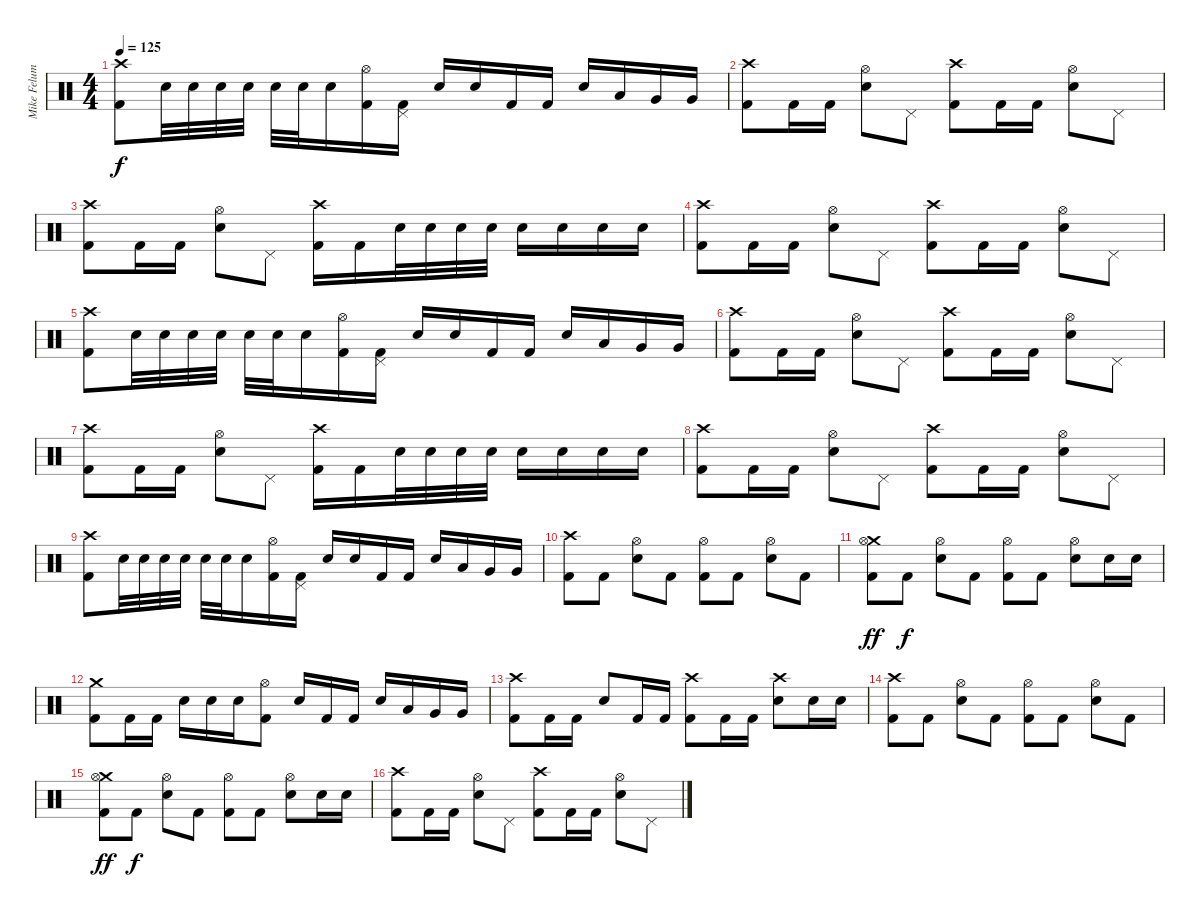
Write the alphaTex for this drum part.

\track ("Mike Felumlee" "Mike Felum") {instrument percussion}
\staff {score}
\articulation defaults
\ts (4 4)
\tempo 125
\clef neutral
\ks c
("Crash high (hit)" "Kick (hit) 2").8{dy f} "Electric Snare (hit)".32 "Electric Snare (hit)".32 "Electric Snare (hit)".32 "Electric Snare (hit)".32 "Electric Snare (hit)".32 "Electric Snare (hit)".32 "Electric Snare (hit)".16 ("Hi-Hat (open)" "Kick (hit) 2").16 ("Pedal Hi-Hat (hit)" "Kick (hit) 2").16 "Electric Snare (hit)".16 "Electric Snare (hit)".16 "Kick (hit) 2".16 "Kick (hit) 2".16 "Electric Snare (hit)".16 "Low Tom (hit)".16 "Very Low Tom (hit)".16 "Very Low Tom (hit)".16 |
("Crash high (hit)" "Kick (hit) 2").8 "Kick (hit) 2".16 "Kick (hit) 2".16 ("Hi-Hat (open)" "Electric Snare (hit)").8 "Pedal Hi-Hat (hit)".8 ("Crash high (hit)" "Kick (hit) 2").8 "Kick (hit) 2".16 "Kick (hit) 2".16 ("Hi-Hat (open)" "Electric Snare (hit)").8 "Pedal Hi-Hat (hit)".8 |
("Crash high (hit)" "Kick (hit) 2").8 "Kick (hit) 2".16 "Kick (hit) 2".16 ("Hi-Hat (open)" "Electric Snare (hit)").8 "Pedal Hi-Hat (hit)".8 ("Crash high (hit)" "Kick (hit) 2").16 "Kick (hit) 2".16 "Electric Snare (hit)".32 "Electric Snare (hit)".32 "Electric Snare (hit)".32 "Electric Snare (hit)".32 "Electric Snare (hit)".16 "Electric Snare (hit)".16 "Electric Snare (hit)".16 "Electric Snare (hit)".16 |
("Crash high (hit)" "Kick (hit) 2").8 "Kick (hit) 2".16 "Kick (hit) 2".16 ("Hi-Hat (open)" "Electric Snare (hit)").8 "Pedal Hi-Hat (hit)".8 ("Crash high (hit)" "Kick (hit) 2").8 "Kick (hit) 2".16 "Kick (hit) 2".16 ("Hi-Hat (open)" "Electric Snare (hit)").8 "Pedal Hi-Hat (hit)".8 |
("Crash high (hit)" "Kick (hit) 2").8 "Electric Snare (hit)".32 "Electric Snare (hit)".32 "Electric Snare (hit)".32 "Electric Snare (hit)".32 "Electric Snare (hit)".32 "Electric Snare (hit)".32 "Electric Snare (hit)".16 ("Hi-Hat (open)" "Kick (hit) 2").16 ("Pedal Hi-Hat (hit)" "Kick (hit) 2").16 "Electric Snare (hit)".16 "Electric Snare (hit)".16 "Kick (hit) 2".16 "Kick (hit) 2".16 "Electric Snare (hit)".16 "Low Tom (hit)".16 "Very Low Tom (hit)".16 "Very Low Tom (hit)".16 |
("Crash high (hit)" "Kick (hit) 2").8 "Kick (hit) 2".16 "Kick (hit) 2".16 ("Hi-Hat (open)" "Electric Snare (hit)").8 "Pedal Hi-Hat (hit)".8 ("Crash high (hit)" "Kick (hit) 2").8 "Kick (hit) 2".16 "Kick (hit) 2".16 ("Hi-Hat (open)" "Electric Snare (hit)").8 "Pedal Hi-Hat (hit)".8 |
("Crash high (hit)" "Kick (hit) 2").8 "Kick (hit) 2".16 "Kick (hit) 2".16 ("Hi-Hat (open)" "Electric Snare (hit)").8 "Pedal Hi-Hat (hit)".8 ("Crash high (hit)" "Kick (hit) 2").16 "Kick (hit) 2".16 "Electric Snare (hit)".32 "Electric Snare (hit)".32 "Electric Snare (hit)".32 "Electric Snare (hit)".32 "Electric Snare (hit)".16 "Electric Snare (hit)".16 "Electric Snare (hit)".16 "Electric Snare (hit)".16 |
("Crash high (hit)" "Kick (hit) 2").8 "Kick (hit) 2".16 "Kick (hit) 2".16 ("Hi-Hat (open)" "Electric Snare (hit)").8 "Pedal Hi-Hat (hit)".8 ("Crash high (hit)" "Kick (hit) 2").8 "Kick (hit) 2".16 "Kick (hit) 2".16 ("Hi-Hat (open)" "Electric Snare (hit)").8 "Pedal Hi-Hat (hit)".8 |
("Crash high (hit)" "Kick (hit) 2").8 "Electric Snare (hit)".32 "Electric Snare (hit)".32 "Electric Snare (hit)".32 "Electric Snare (hit)".32 "Electric Snare (hit)".32 "Electric Snare (hit)".32 "Electric Snare (hit)".16 ("Hi-Hat (open)" "Kick (hit) 2").16 ("Pedal Hi-Hat (hit)" "Kick (hit) 2").16 "Electric Snare (hit)".16 "Electric Snare (hit)".16 "Kick (hit) 2".16 "Kick (hit) 2".16 "Electric Snare (hit)".16 "Low Tom (hit)".16 "Very Low Tom (hit)".16 "Very Low Tom (hit)".16 |
("Crash high (hit)" "Kick (hit) 2").8 "Kick (hit) 2".8 ("Hi-Hat (open)" "Electric Snare (hit)").8 "Kick (hit) 2".8 ("Hi-Hat (open)" "Kick (hit) 2").8 "Kick (hit) 2".8 ("Hi-Hat (open)" "Electric Snare (hit)").8 "Kick (hit) 2".8 |
("Crash medium (hit)" "Hi-Hat (open)" "Kick (hit) 2").8{dy ff} "Kick (hit) 2".8{dy f} ("Hi-Hat (open)" "Electric Snare (hit)").8 "Kick (hit) 2".8 ("Hi-Hat (open)" "Kick (hit) 2").8 "Kick (hit) 2".8 ("Hi-Hat (open)" "Electric Snare (hit)").8 "Electric Snare (hit)".16 "Electric Snare (hit)".16 |
("Crash medium (hit)" "Kick (hit) 2").8 "Kick (hit) 2".16 "Kick (hit) 2".16 "Electric Snare (hit)".16 "Electric Snare (hit)".16 "Electric Snare (hit)".16 ("Hi-Hat (open)" "Kick (hit) 2").8 "Electric Snare (hit)".16 "Kick (hit) 2".16 "Kick (hit) 2".16 "Electric Snare (hit)".16 "Low Tom (hit)".16 "Very Low Tom (hit)".16 "Very Low Tom (hit)".16 |
("Crash high (hit)" "Kick (hit) 2").8 "Kick (hit) 2".16 "Kick (hit) 2".16 "Electric Snare (hit)".8 "Kick (hit) 2".16 "Kick (hit) 2".16 ("Crash high (hit)" "Kick (hit) 2").8 "Kick (hit) 2".16 "Kick (hit) 2".16 ("Crash high (hit)" "Electric Snare (hit)").8 "Electric Snare (hit)".16 "Electric Snare (hit)".16 |
("Crash high (hit)" "Kick (hit) 2").8 "Kick (hit) 2".8 ("Hi-Hat (open)" "Electric Snare (hit)").8 "Kick (hit) 2".8 ("Hi-Hat (open)" "Kick (hit) 2").8 "Kick (hit) 2".8 ("Hi-Hat (open)" "Electric Snare (hit)").8 "Kick (hit) 2".8 |
("Crash medium (hit)" "Hi-Hat (open)" "Kick (hit) 2").8{dy ff} "Kick (hit) 2".8{dy f} ("Hi-Hat (open)" "Electric Snare (hit)").8 "Kick (hit) 2".8 ("Hi-Hat (open)" "Kick (hit) 2").8 "Kick (hit) 2".8 ("Hi-Hat (open)" "Electric Snare (hit)").8 "Electric Snare (hit)".16 "Electric Snare (hit)".16 |
("Crash high (hit)" "Kick (hit) 2").8 "Kick (hit) 2".16 "Kick (hit) 2".16 ("Hi-Hat (open)" "Electric Snare (hit)").8 "Pedal Hi-Hat (hit)".8 ("Crash high (hit)" "Kick (hit) 2").8 "Kick (hit) 2".16 "Kick (hit) 2".16 ("Hi-Hat (open)" "Electric Snare (hit)").8 "Pedal Hi-Hat (hit)".8
